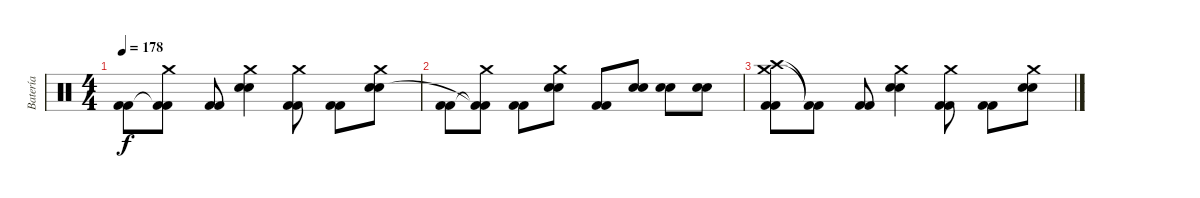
\track ("Batería" "Batería") {instrument percussion}
\staff {score}
\articulation defaults
\ts (4 4)
\tempo 178
\clef neutral
\ks c
("Kick (hit) 2" "Kick (hit) 2").8{dy f} ("Crash medium (hit)" "Kick (hit) 2"{t} "Kick (hit) 2"{t}).8 ("Kick (hit) 2" "Kick (hit) 2").8 ("Crash medium (hit)" "Electric Snare (hit)" "Electric Snare (hit)").4 ("Crash medium (hit)" "Kick (hit) 2" "Kick (hit) 2").8 ("Kick (hit) 2" "Kick (hit) 2").8 ("Crash medium (hit)" "Electric Snare (hit)" "Electric Snare (hit)").8 |
("Kick (hit) 2" "Kick (hit) 2").8 ("Crash medium (hit)" "Kick (hit) 2"{t} "Kick (hit) 2"{t}).8 ("Kick (hit) 2" "Kick (hit) 2").8 ("Crash medium (hit)" "Electric Snare (hit)" "Electric Snare (hit)").8 ("Kick (hit) 2" "Kick (hit) 2").8 ("Electric Snare (hit)" "Electric Snare (hit)").8 ("Electric Snare (hit)" "Electric Snare (hit)").8 ("Electric Snare (hit)" "Electric Snare (hit)").8 |
("Crash medium (hit)" "Crash high (hit)" "Kick (hit) 2" "Kick (hit) 2").8 ("Kick (hit) 2"{t} "Kick (hit) 2"{t}).8 ("Kick (hit) 2" "Kick (hit) 2").8 ("Crash medium (hit)" "Electric Snare (hit)" "Electric Snare (hit)").4 ("Crash medium (hit)" "Kick (hit) 2" "Kick (hit) 2").8 ("Kick (hit) 2" "Kick (hit) 2").8 ("Crash medium (hit)" "Electric Snare (hit)" "Electric Snare (hit)").8
